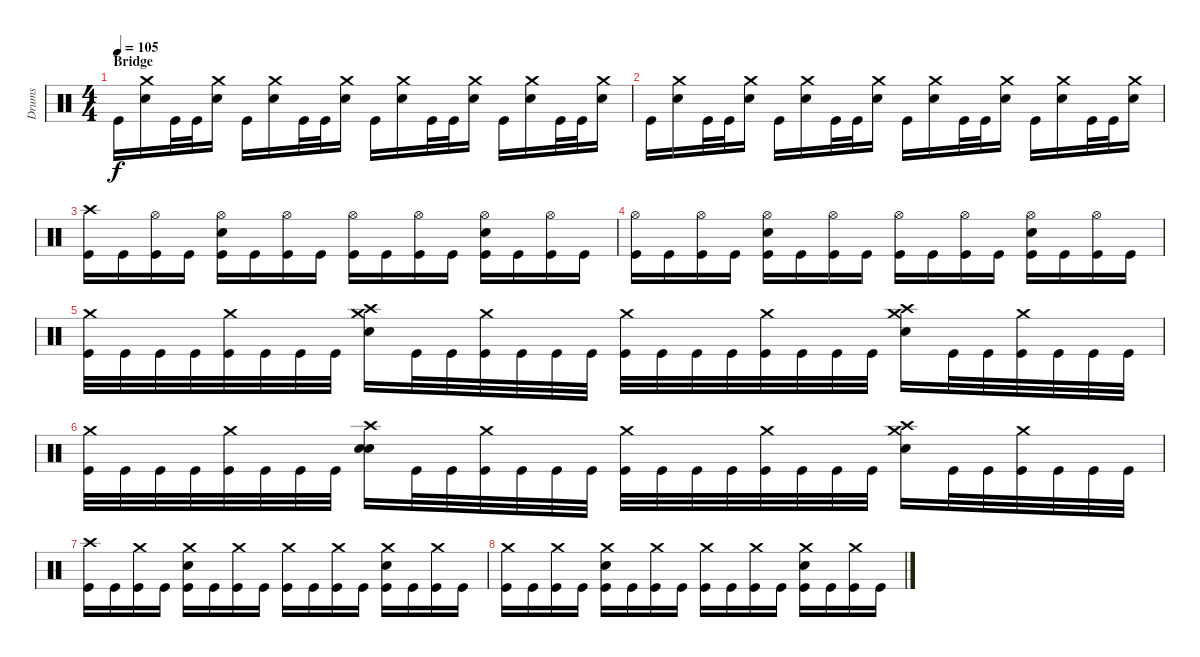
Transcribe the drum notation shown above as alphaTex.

\track ("Drums" "Drums") {instrument percussion}
\staff {score}
\articulation defaults
\ts (4 4)
\section ("" "Bridge")
\tempo 105
\clef neutral
\ks c "Kick (hit)".16{dy f}
("Crash medium (hit)" "Electric Snare (hit)").16 "Kick (hit)".32 "Kick (hit)".32 ("Crash medium (hit)" "Electric Snare (hit)").16 "Kick (hit)".16 ("Crash medium (hit)" "Electric Snare (hit)").16 "Kick (hit)".32 "Kick (hit)".32 ("Crash medium (hit)" "Electric Snare (hit)").16 "Kick (hit)".16 ("Crash medium (hit)" "Electric Snare (hit)").16 "Kick (hit)".32 "Kick (hit)".32 ("Crash medium (hit)" "Electric Snare (hit)").16 "Kick (hit)".16 ("Crash medium (hit)" "Electric Snare (hit)").16 "Kick (hit)".32 "Kick (hit)".32 ("Crash medium (hit)" "Electric Snare (hit)").16 |
"Kick (hit)".16 ("Crash medium (hit)" "Electric Snare (hit)").16 "Kick (hit)".32 "Kick (hit)".32 ("Crash medium (hit)" "Electric Snare (hit)").16 "Kick (hit)".16 ("Crash medium (hit)" "Electric Snare (hit)").16 "Kick (hit)".32 "Kick (hit)".32 ("Crash medium (hit)" "Electric Snare (hit)").16 "Kick (hit)".16 ("Crash medium (hit)" "Electric Snare (hit)").16 "Kick (hit)".32 "Kick (hit)".32 ("Crash medium (hit)" "Electric Snare (hit)").16 "Kick (hit)".16 ("Crash medium (hit)" "Electric Snare (hit)").16 "Kick (hit)".32 "Kick (hit)".32 ("Crash medium (hit)" "Electric Snare (hit)").16 |
("Crash high (hit)" "Kick (hit)").16 "Kick (hit)".16 ("Hi-Hat (open)" "Kick (hit)").16 "Kick (hit)".16 ("Hi-Hat (open)" "Electric Snare (hit)" "Kick (hit)").16 "Kick (hit)".16 ("Hi-Hat (open)" "Kick (hit)").16 "Kick (hit)".16 ("Hi-Hat (open)" "Kick (hit)").16 "Kick (hit)".16 ("Hi-Hat (open)" "Kick (hit)").16 "Kick (hit)".16 ("Hi-Hat (open)" "Electric Snare (hit)" "Kick (hit)").16 "Kick (hit)".16 ("Hi-Hat (open)" "Kick (hit)").16 "Kick (hit)".16 |
("Hi-Hat (open)" "Kick (hit)").16 "Kick (hit)".16 ("Hi-Hat (open)" "Kick (hit)").16 "Kick (hit)".16 ("Hi-Hat (open)" "Electric Snare (hit)" "Kick (hit)").16 "Kick (hit)".16 ("Hi-Hat (open)" "Kick (hit)").16 "Kick (hit)".16 ("Hi-Hat (open)" "Kick (hit)").16 "Kick (hit)".16 ("Hi-Hat (open)" "Kick (hit)").16 "Kick (hit)".16 ("Hi-Hat (open)" "Electric Snare (hit)" "Kick (hit)").16 "Kick (hit)".16 ("Hi-Hat (open)" "Kick (hit)").16 "Kick (hit)".16 |
("Crash medium (hit)" "Kick (hit)").32 "Kick (hit)".32 "Kick (hit)".32 "Kick (hit)".32 ("Crash medium (hit)" "Kick (hit)").32 "Kick (hit)".32 "Kick (hit)".32 "Kick (hit)".32 ("Crash high (hit)" "Crash medium (hit)" "Electric Snare (hit)").16 "Kick (hit)".32 "Kick (hit)".32 ("Crash medium (hit)" "Kick (hit)").32 "Kick (hit)".32 "Kick (hit)".32 "Kick (hit)".32 ("Crash medium (hit)" "Kick (hit)").32 "Kick (hit)".32 "Kick (hit)".32 "Kick (hit)".32 ("Crash medium (hit)" "Kick (hit)").32 "Kick (hit)".32 "Kick (hit)".32 "Kick (hit)".32 ("Crash high (hit)" "Crash medium (hit)" "Electric Snare (hit)").16 "Kick (hit)".32 "Kick (hit)".32 ("Crash medium (hit)" "Kick (hit)").32 "Kick (hit)".32 "Kick (hit)".32 "Kick (hit)".32 |
("Crash medium (hit)" "Kick (hit)").32 "Kick (hit)".32 "Kick (hit)".32 "Kick (hit)".32 ("Crash medium (hit)" "Kick (hit)").32 "Kick (hit)".32 "Kick (hit)".32 "Kick (hit)".32 ("Crash high (hit)" "Snare (hit)" "Electric Snare (hit)").16 "Kick (hit)".32 "Kick (hit)".32 ("Crash medium (hit)" "Kick (hit)").32 "Kick (hit)".32 "Kick (hit)".32 "Kick (hit)".32 ("Crash medium (hit)" "Kick (hit)").32 "Kick (hit)".32 "Kick (hit)".32 "Kick (hit)".32 ("Crash medium (hit)" "Kick (hit)").32 "Kick (hit)".32 "Kick (hit)".32 "Kick (hit)".32 ("Crash medium (hit)" "Crash high (hit)" "Electric Snare (hit)").16 "Kick (hit)".32 "Kick (hit)".32 ("Crash medium (hit)" "Kick (hit)").32 "Kick (hit)".32 "Kick (hit)".32 "Kick (hit)".32 |
("Crash high (hit)" "Kick (hit)").16 "Kick (hit)".16 ("Crash medium (hit)" "Kick (hit)").16 "Kick (hit)".16 ("Crash medium (hit)" "Electric Snare (hit)" "Kick (hit)").16 "Kick (hit)".16 ("Crash medium (hit)" "Kick (hit)").16 "Kick (hit)".16 ("Crash medium (hit)" "Kick (hit)").16 "Kick (hit)".16 ("Crash medium (hit)" "Kick (hit)").16 "Kick (hit)".16 ("Crash medium (hit)" "Electric Snare (hit)" "Kick (hit)").16 "Kick (hit)".16 ("Crash medium (hit)" "Kick (hit)").16 "Kick (hit)".16 |
("Crash medium (hit)" "Kick (hit)").16 "Kick (hit)".16 ("Crash medium (hit)" "Kick (hit)").16 "Kick (hit)".16 ("Crash medium (hit)" "Electric Snare (hit)" "Kick (hit)").16 "Kick (hit)".16 ("Crash medium (hit)" "Kick (hit)").16 "Kick (hit)".16 ("Crash medium (hit)" "Kick (hit)").16 "Kick (hit)".16 ("Crash medium (hit)" "Kick (hit)").16 "Kick (hit)".16 ("Crash medium (hit)" "Electric Snare (hit)" "Kick (hit)").16 "Kick (hit)".16 ("Crash medium (hit)" "Kick (hit)").16 "Kick (hit)".16
